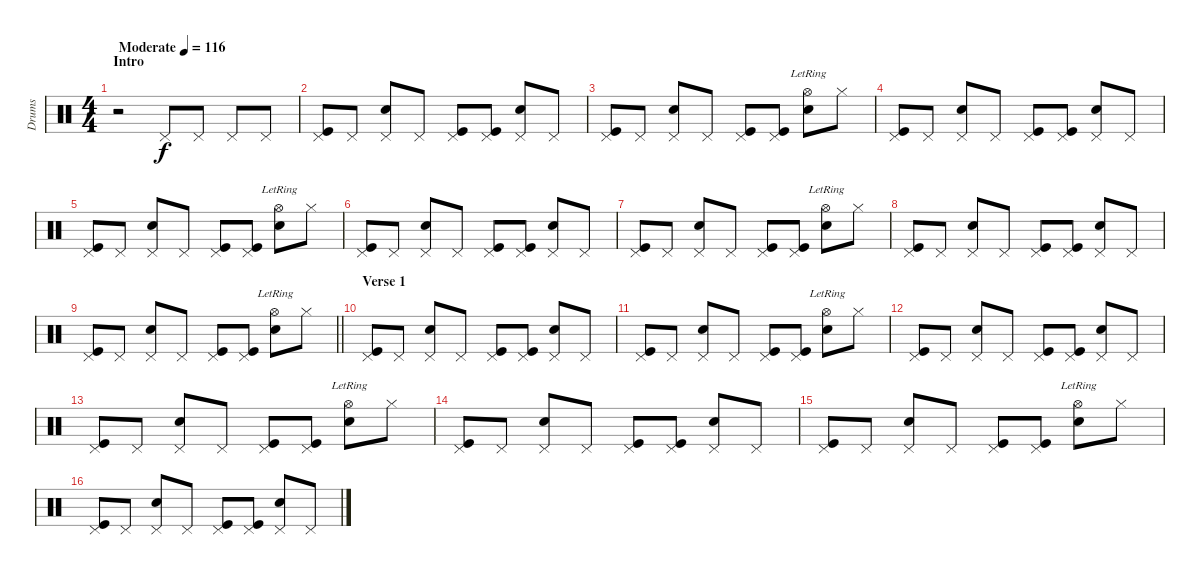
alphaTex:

\track ("Drums" "Drums") {instrument percussion}
\staff {score}
\articulation defaults
\ts (4 4)
\section ("" "Intro")
\tempo (116 "Moderate")
\clef neutral
\ks c
r.2{dy f} "Pedal Hi-Hat (hit)".8 "Pedal Hi-Hat (hit)".8 "Pedal Hi-Hat (hit)".8 "Pedal Hi-Hat (hit)".8 |
("Pedal Hi-Hat (hit)" "Kick (hit)").8 "Pedal Hi-Hat (hit)".8 ("Pedal Hi-Hat (hit)" "Snare (hit) 2").8 "Pedal Hi-Hat (hit)".8 ("Pedal Hi-Hat (hit)" "Kick (hit)").8 ("Pedal Hi-Hat (hit)" "Kick (hit)").8 ("Pedal Hi-Hat (hit)" "Snare (hit) 2").8 "Pedal Hi-Hat (hit)".8 |
("Pedal Hi-Hat (hit)" "Kick (hit)").8 "Pedal Hi-Hat (hit)".8 ("Pedal Hi-Hat (hit)" "Snare (hit) 2").8 "Pedal Hi-Hat (hit)".8 ("Pedal Hi-Hat (hit)" "Kick (hit)").8 ("Pedal Hi-Hat (hit)" "Kick (hit)").8 ("Hi-Hat (open)"{lr} "Snare (hit) 2").8 "Hi-Hat (closed)".8 |
("Pedal Hi-Hat (hit)" "Kick (hit)").8 "Pedal Hi-Hat (hit)".8 ("Pedal Hi-Hat (hit)" "Snare (hit) 2").8 "Pedal Hi-Hat (hit)".8 ("Pedal Hi-Hat (hit)" "Kick (hit)").8 ("Pedal Hi-Hat (hit)" "Kick (hit)").8 ("Pedal Hi-Hat (hit)" "Snare (hit) 2").8 "Pedal Hi-Hat (hit)".8 |
("Pedal Hi-Hat (hit)" "Kick (hit)").8 "Pedal Hi-Hat (hit)".8 ("Pedal Hi-Hat (hit)" "Snare (hit) 2").8 "Pedal Hi-Hat (hit)".8 ("Pedal Hi-Hat (hit)" "Kick (hit)").8 ("Pedal Hi-Hat (hit)" "Kick (hit)").8 ("Hi-Hat (open)"{lr} "Snare (hit) 2").8 "Hi-Hat (closed)".8 |
("Pedal Hi-Hat (hit)" "Kick (hit)").8 "Pedal Hi-Hat (hit)".8 ("Pedal Hi-Hat (hit)" "Snare (hit) 2").8 "Pedal Hi-Hat (hit)".8 ("Pedal Hi-Hat (hit)" "Kick (hit)").8 ("Pedal Hi-Hat (hit)" "Kick (hit)").8 ("Pedal Hi-Hat (hit)" "Snare (hit) 2").8 "Pedal Hi-Hat (hit)".8 |
("Pedal Hi-Hat (hit)" "Kick (hit)").8 "Pedal Hi-Hat (hit)".8 ("Pedal Hi-Hat (hit)" "Snare (hit) 2").8 "Pedal Hi-Hat (hit)".8 ("Pedal Hi-Hat (hit)" "Kick (hit)").8 ("Pedal Hi-Hat (hit)" "Kick (hit)").8 ("Hi-Hat (open)"{lr} "Snare (hit) 2").8 "Hi-Hat (closed)".8 |
("Pedal Hi-Hat (hit)" "Kick (hit)").8 "Pedal Hi-Hat (hit)".8 ("Pedal Hi-Hat (hit)" "Snare (hit) 2").8 "Pedal Hi-Hat (hit)".8 ("Pedal Hi-Hat (hit)" "Kick (hit)").8 ("Pedal Hi-Hat (hit)" "Kick (hit)").8 ("Pedal Hi-Hat (hit)" "Snare (hit) 2").8 "Pedal Hi-Hat (hit)".8 |
\barLineRight lightlight
("Pedal Hi-Hat (hit)" "Kick (hit)").8 "Pedal Hi-Hat (hit)".8 ("Pedal Hi-Hat (hit)" "Snare (hit) 2").8 "Pedal Hi-Hat (hit)".8 ("Pedal Hi-Hat (hit)" "Kick (hit)").8 ("Pedal Hi-Hat (hit)" "Kick (hit)").8 ("Hi-Hat (open)"{lr} "Snare (hit) 2").8 "Hi-Hat (closed)".8 |
\section ("" "Verse 1")
("Pedal Hi-Hat (hit)" "Kick (hit)").8 "Pedal Hi-Hat (hit)".8 ("Pedal Hi-Hat (hit)" "Snare (hit) 2").8 "Pedal Hi-Hat (hit)".8 ("Pedal Hi-Hat (hit)" "Kick (hit)").8 ("Pedal Hi-Hat (hit)" "Kick (hit)").8 ("Pedal Hi-Hat (hit)" "Snare (hit) 2").8 "Pedal Hi-Hat (hit)".8 |
("Pedal Hi-Hat (hit)" "Kick (hit)").8 "Pedal Hi-Hat (hit)".8 ("Pedal Hi-Hat (hit)" "Snare (hit) 2").8 "Pedal Hi-Hat (hit)".8 ("Pedal Hi-Hat (hit)" "Kick (hit)").8 ("Pedal Hi-Hat (hit)" "Kick (hit)").8 ("Hi-Hat (open)"{lr} "Snare (hit) 2").8 "Hi-Hat (closed)".8 |
("Pedal Hi-Hat (hit)" "Kick (hit)").8 "Pedal Hi-Hat (hit)".8 ("Pedal Hi-Hat (hit)" "Snare (hit) 2").8 "Pedal Hi-Hat (hit)".8 ("Pedal Hi-Hat (hit)" "Kick (hit)").8 ("Pedal Hi-Hat (hit)" "Kick (hit)").8 ("Pedal Hi-Hat (hit)" "Snare (hit) 2").8 "Pedal Hi-Hat (hit)".8 |
("Pedal Hi-Hat (hit)" "Kick (hit)").8 "Pedal Hi-Hat (hit)".8 ("Pedal Hi-Hat (hit)" "Snare (hit) 2").8 "Pedal Hi-Hat (hit)".8 ("Pedal Hi-Hat (hit)" "Kick (hit)").8 ("Pedal Hi-Hat (hit)" "Kick (hit)").8 ("Hi-Hat (open)"{lr} "Snare (hit) 2").8 "Hi-Hat (closed)".8 |
("Pedal Hi-Hat (hit)" "Kick (hit)").8 "Pedal Hi-Hat (hit)".8 ("Pedal Hi-Hat (hit)" "Snare (hit) 2").8 "Pedal Hi-Hat (hit)".8 ("Pedal Hi-Hat (hit)" "Kick (hit)").8 ("Pedal Hi-Hat (hit)" "Kick (hit)").8 ("Pedal Hi-Hat (hit)" "Snare (hit) 2").8 "Pedal Hi-Hat (hit)".8 |
("Pedal Hi-Hat (hit)" "Kick (hit)").8 "Pedal Hi-Hat (hit)".8 ("Pedal Hi-Hat (hit)" "Snare (hit) 2").8 "Pedal Hi-Hat (hit)".8 ("Pedal Hi-Hat (hit)" "Kick (hit)").8 ("Pedal Hi-Hat (hit)" "Kick (hit)").8 ("Hi-Hat (open)"{lr} "Snare (hit) 2").8 "Hi-Hat (closed)".8 |
("Pedal Hi-Hat (hit)" "Kick (hit)").8 "Pedal Hi-Hat (hit)".8 ("Pedal Hi-Hat (hit)" "Snare (hit) 2").8 "Pedal Hi-Hat (hit)".8 ("Pedal Hi-Hat (hit)" "Kick (hit)").8 ("Pedal Hi-Hat (hit)" "Kick (hit)").8 ("Pedal Hi-Hat (hit)" "Snare (hit) 2").8 "Pedal Hi-Hat (hit)".8
